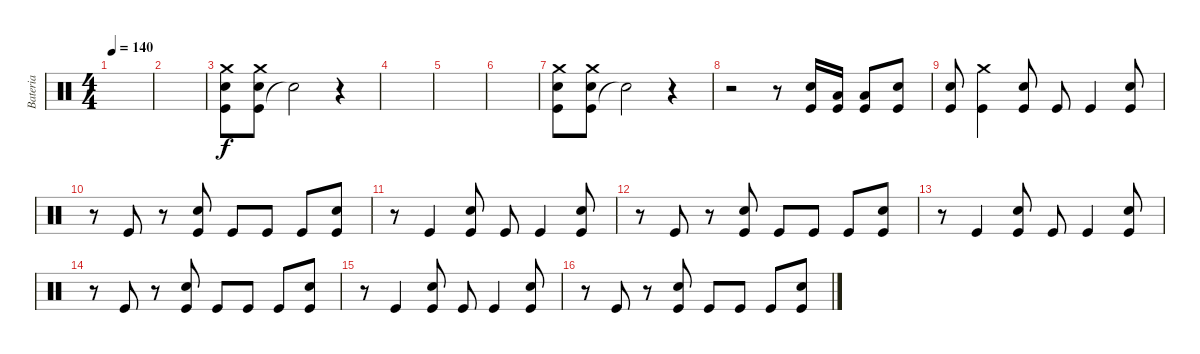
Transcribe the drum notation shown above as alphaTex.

\track ("Bateria" "Bateria") {instrument percussion}
\staff {score}
\articulation defaults
\ts (4 4)
\tempo 140
\clef neutral
\ks c
|
|
("Kick (hit)" "Snare (hit) 2" "Crash medium (hit)").8 ("Kick (hit)" "Snare (hit) 2" "Crash medium (hit)").8 "Snare (hit)"{t}.2 r.4 |
|
|
|
("Kick (hit)" "Snare (hit) 2" "Crash medium (hit)").8 ("Kick (hit)" "Snare (hit) 2" "Crash medium (hit)").8 "Snare (hit)"{t}.2 r.4 |
r.2 r.8 ("Kick (hit)" "Snare (hit) 2").16 ("Kick (hit)" "Low Tom (hit)").16 ("Kick (hit)" "Low Tom (hit)").8 ("Kick (hit)" "Snare (hit) 2").8 |
("Kick (hit)" "Snare (hit) 2").8 ("Kick (hit)" "Crash medium (hit)").4 ("Kick (hit)" "Snare (hit) 2").8 "Kick (hit)".8 "Kick (hit)".4 ("Kick (hit)" "Snare (hit) 2").8 |
r.8 "Kick (hit)".8 r.8 ("Kick (hit)" "Snare (hit) 2").8 "Kick (hit)".8 "Kick (hit)".8 "Kick (hit)".8 ("Kick (hit)" "Snare (hit) 2").8 |
r.8 "Kick (hit)".4 ("Kick (hit)" "Snare (hit) 2").8 "Kick (hit)".8 "Kick (hit)".4 ("Kick (hit)" "Snare (hit) 2").8 |
r.8 "Kick (hit)".8 r.8 ("Kick (hit)" "Snare (hit) 2").8 "Kick (hit)".8 "Kick (hit)".8 "Kick (hit)".8 ("Kick (hit)" "Snare (hit) 2").8 |
r.8 "Kick (hit)".4 ("Kick (hit)" "Snare (hit) 2").8 "Kick (hit)".8 "Kick (hit)".4 ("Kick (hit)" "Snare (hit) 2").8 |
r.8 "Kick (hit)".8 r.8 ("Kick (hit)" "Snare (hit) 2").8 "Kick (hit)".8 "Kick (hit)".8 "Kick (hit)".8 ("Kick (hit)" "Snare (hit) 2").8 |
r.8 "Kick (hit)".4 ("Kick (hit)" "Snare (hit) 2").8 "Kick (hit)".8 "Kick (hit)".4 ("Kick (hit)" "Snare (hit) 2").8 |
r.8 "Kick (hit)".8 r.8 ("Kick (hit)" "Snare (hit) 2").8 "Kick (hit)".8 "Kick (hit)".8 "Kick (hit)".8 ("Kick (hit)" "Snare (hit) 2").8
